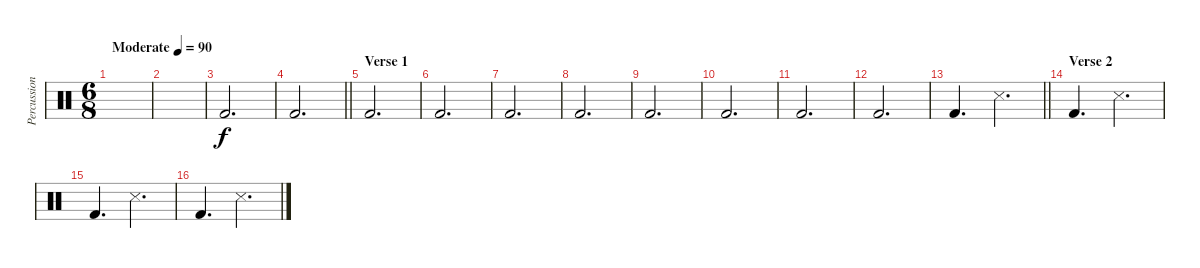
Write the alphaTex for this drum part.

\track ("Percussion" "Percussion") {instrument percussion}
\staff {score}
\articulation defaults
\ts (6 8)
\tempo (90 "Moderate")
\clef neutral
\ks c
|
|
"Kick (hit) 2".2{d} |
\barLineRight lightlight "Kick (hit) 2".2{d}
|
\section ("" "Verse 1")
"Kick (hit) 2".2{d} |
"Kick (hit) 2".2{d} |
"Kick (hit) 2".2{d} |
"Kick (hit) 2".2{d} |
"Kick (hit) 2".2{d} |
"Kick (hit) 2".2{d} |
"Kick (hit) 2".2{d} |
"Kick (hit) 2".2{d} |
\barLineRight lightlight "Kick (hit) 2".4{d} "Snare (side stick) 3".4{d}
|
\section ("" "Verse 2")
"Kick (hit) 2".4{d} "Snare (side stick) 3".4{d} |
"Kick (hit) 2".4{d} "Snare (side stick) 3".4{d} |
"Kick (hit) 2".4{d} "Snare (side stick) 3".4{d}
